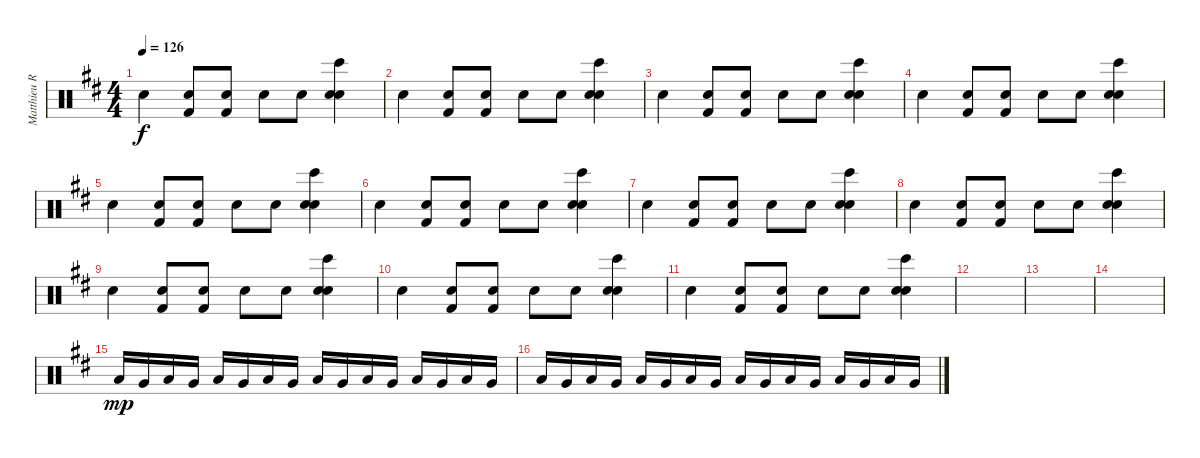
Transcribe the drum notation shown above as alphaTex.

\track ("Matthieu Rabatté (batterie)" "Matthieu R") {instrument percussion}
\staff {score}
\articulation defaults
\ts (4 4)
\tempo 126
\clef neutral
\ks d "Snare (hit) 2".4{dy f}
("Kick (hit) 2" "Electric Snare (hit)").8 ("Kick (hit) 2" "Electric Snare (hit)").8 "Snare (hit) 2".8 "Snare (hit) 2".8 ("Bongo High (hit)" "Electric Snare (hit)" "Hand Clap (hit)").4 |
"Snare (hit) 2".4 ("Kick (hit) 2" "Electric Snare (hit)").8 ("Kick (hit) 2" "Electric Snare (hit)").8 "Snare (hit) 2".8 "Snare (hit) 2".8 ("Bongo High (hit)" "Electric Snare (hit)" "Hand Clap (hit)").4 |
"Snare (hit) 2".4 ("Kick (hit) 2" "Electric Snare (hit)").8 ("Kick (hit) 2" "Electric Snare (hit)").8 "Snare (hit) 2".8 "Snare (hit) 2".8 ("Bongo High (hit)" "Electric Snare (hit)" "Hand Clap (hit)").4 |
"Snare (hit) 2".4 ("Kick (hit) 2" "Electric Snare (hit)").8 ("Kick (hit) 2" "Electric Snare (hit)").8 "Snare (hit) 2".8 "Snare (hit) 2".8 ("Bongo High (hit)" "Electric Snare (hit)" "Hand Clap (hit)").4 |
"Snare (hit) 2".4 ("Kick (hit) 2" "Electric Snare (hit)").8 ("Kick (hit) 2" "Electric Snare (hit)").8 "Snare (hit) 2".8 "Snare (hit) 2".8 ("Bongo High (hit)" "Electric Snare (hit)" "Hand Clap (hit)").4 |
"Snare (hit) 2".4 ("Kick (hit) 2" "Electric Snare (hit)").8 ("Kick (hit) 2" "Electric Snare (hit)").8 "Snare (hit) 2".8 "Snare (hit) 2".8 ("Bongo High (hit)" "Electric Snare (hit)" "Hand Clap (hit)").4 |
"Snare (hit) 2".4 ("Kick (hit) 2" "Electric Snare (hit)").8 ("Kick (hit) 2" "Electric Snare (hit)").8 "Snare (hit) 2".8 "Snare (hit) 2".8 ("Bongo High (hit)" "Electric Snare (hit)" "Hand Clap (hit)").4 |
"Snare (hit) 2".4 ("Kick (hit) 2" "Electric Snare (hit)").8 ("Kick (hit) 2" "Electric Snare (hit)").8 "Snare (hit) 2".8 "Snare (hit) 2".8 ("Bongo High (hit)" "Electric Snare (hit)" "Hand Clap (hit)").4 |
"Snare (hit) 2".4 ("Kick (hit) 2" "Electric Snare (hit)").8 ("Kick (hit) 2" "Electric Snare (hit)").8 "Snare (hit) 2".8 "Snare (hit) 2".8 ("Bongo High (hit)" "Electric Snare (hit)" "Hand Clap (hit)").4 |
"Snare (hit) 2".4 ("Kick (hit) 2" "Electric Snare (hit)").8 ("Kick (hit) 2" "Electric Snare (hit)").8 "Snare (hit) 2".8 "Snare (hit) 2".8 ("Bongo High (hit)" "Electric Snare (hit)" "Hand Clap (hit)").4 |
"Snare (hit) 2".4 ("Kick (hit) 2" "Electric Snare (hit)").8 ("Kick (hit) 2" "Electric Snare (hit)").8 "Snare (hit) 2".8 "Snare (hit) 2".8 ("Bongo High (hit)" "Electric Snare (hit)" "Hand Clap (hit)").4 |
|
|
|
"Low Floor Tom (hit)".16{dy mp} "Very Low Tom (hit)".16 "Low Floor Tom (hit)".16 "Very Low Tom (hit)".16 "Low Floor Tom (hit)".16 "Very Low Tom (hit)".16 "Low Floor Tom (hit)".16 "Very Low Tom (hit)".16 "Low Floor Tom (hit)".16 "Very Low Tom (hit)".16 "Low Floor Tom (hit)".16 "Very Low Tom (hit)".16 "Low Floor Tom (hit)".16 "Very Low Tom (hit)".16 "Low Floor Tom (hit)".16 "Very Low Tom (hit)".16 |
"Low Floor Tom (hit)".16 "Very Low Tom (hit)".16 "Low Floor Tom (hit)".16 "Very Low Tom (hit)".16 "Low Floor Tom (hit)".16 "Very Low Tom (hit)".16 "Low Floor Tom (hit)".16 "Very Low Tom (hit)".16 "Low Floor Tom (hit)".16 "Very Low Tom (hit)".16 "Low Floor Tom (hit)".16 "Very Low Tom (hit)".16 "Low Floor Tom (hit)".16 "Very Low Tom (hit)".16 "Low Floor Tom (hit)".16 "Very Low Tom (hit)".16
